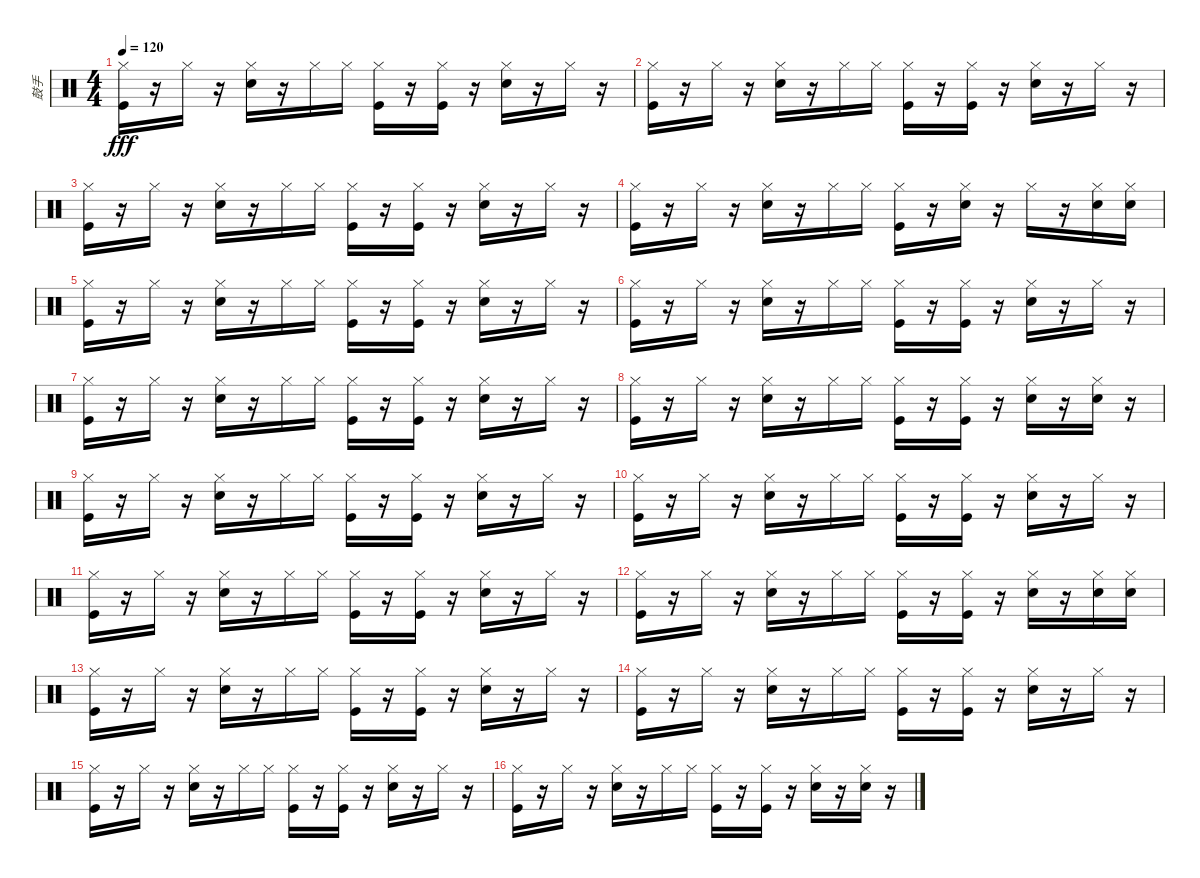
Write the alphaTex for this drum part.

\track ("鼓手" "鼓手") {instrument percussion}
\staff {score}
\articulation defaults
\ts (4 4)
\tempo 120
\clef neutral
\ks c
("Kick (hit)" "Hi-Hat (closed)").16{dy fff} r.16 "Hi-Hat (closed)".16 r.16 ("Snare (hit) 2" "Hi-Hat (closed)").16 r.16 "Hi-Hat (closed)".16 "Hi-Hat (closed)".16 ("Kick (hit)" "Hi-Hat (closed)").16 r.16 ("Kick (hit)" "Hi-Hat (closed)").16 r.16 ("Snare (hit) 2" "Hi-Hat (closed)").16 r.16 "Hi-Hat (closed)".16 r.16 |
("Kick (hit)" "Hi-Hat (closed)").16 r.16 "Hi-Hat (closed)".16 r.16 ("Snare (hit) 2" "Hi-Hat (closed)").16 r.16 "Hi-Hat (closed)".16 "Hi-Hat (closed)".16 ("Kick (hit)" "Hi-Hat (closed)").16 r.16 ("Kick (hit)" "Hi-Hat (closed)").16 r.16 ("Snare (hit) 2" "Hi-Hat (closed)").16 r.16 "Hi-Hat (closed)".16 r.16 |
("Kick (hit)" "Hi-Hat (closed)").16 r.16 "Hi-Hat (closed)".16 r.16 ("Snare (hit) 2" "Hi-Hat (closed)").16 r.16 "Hi-Hat (closed)".16 "Hi-Hat (closed)".16 ("Kick (hit)" "Hi-Hat (closed)").16 r.16 ("Kick (hit)" "Hi-Hat (closed)").16 r.16 ("Snare (hit) 2" "Hi-Hat (closed)").16 r.16 "Hi-Hat (closed)".16 r.16 |
("Kick (hit)" "Hi-Hat (closed)").16 r.16 "Hi-Hat (closed)".16 r.16 ("Snare (hit) 2" "Hi-Hat (closed)").16 r.16 "Hi-Hat (closed)".16 "Hi-Hat (closed)".16 ("Kick (hit)" "Hi-Hat (closed)").16 r.16 ("Snare (hit) 2" "Hi-Hat (closed)").16 r.16 "Hi-Hat (closed)".16 r.16 ("Snare (hit) 2" "Hi-Hat (closed)").16 ("Snare (hit) 2" "Hi-Hat (closed)").16 |
("Kick (hit)" "Hi-Hat (closed)").16 r.16 "Hi-Hat (closed)".16 r.16 ("Snare (hit) 2" "Hi-Hat (closed)").16 r.16 "Hi-Hat (closed)".16 "Hi-Hat (closed)".16 ("Kick (hit)" "Hi-Hat (closed)").16 r.16 ("Kick (hit)" "Hi-Hat (closed)").16 r.16 ("Snare (hit) 2" "Hi-Hat (closed)").16 r.16 "Hi-Hat (closed)".16 r.16 |
("Kick (hit)" "Hi-Hat (closed)").16 r.16 "Hi-Hat (closed)".16 r.16 ("Snare (hit) 2" "Hi-Hat (closed)").16 r.16 "Hi-Hat (closed)".16 "Hi-Hat (closed)".16 ("Kick (hit)" "Hi-Hat (closed)").16 r.16 ("Kick (hit)" "Hi-Hat (closed)").16 r.16 ("Snare (hit) 2" "Hi-Hat (closed)").16 r.16 "Hi-Hat (closed)".16 r.16 |
("Kick (hit)" "Hi-Hat (closed)").16 r.16 "Hi-Hat (closed)".16 r.16 ("Snare (hit) 2" "Hi-Hat (closed)").16 r.16 "Hi-Hat (closed)".16 "Hi-Hat (closed)".16 ("Kick (hit)" "Hi-Hat (closed)").16 r.16 ("Kick (hit)" "Hi-Hat (closed)").16 r.16 ("Snare (hit) 2" "Hi-Hat (closed)").16 r.16 "Hi-Hat (closed)".16 r.16 |
("Kick (hit)" "Hi-Hat (closed)").16 r.16 "Hi-Hat (closed)".16 r.16 ("Snare (hit) 2" "Hi-Hat (closed)").16 r.16 "Hi-Hat (closed)".16 "Hi-Hat (closed)".16 ("Kick (hit)" "Hi-Hat (closed)").16 r.16 ("Kick (hit)" "Hi-Hat (closed)").16 r.16 ("Snare (hit) 2" "Hi-Hat (closed)").16 r.16 ("Snare (hit) 2" "Hi-Hat (closed)").16 r.16 |
("Kick (hit)" "Hi-Hat (closed)").16 r.16 "Hi-Hat (closed)".16 r.16 ("Snare (hit) 2" "Hi-Hat (closed)").16 r.16 "Hi-Hat (closed)".16 "Hi-Hat (closed)".16 ("Kick (hit)" "Hi-Hat (closed)").16 r.16 ("Kick (hit)" "Hi-Hat (closed)").16 r.16 ("Snare (hit) 2" "Hi-Hat (closed)").16 r.16 "Hi-Hat (closed)".16 r.16 |
("Kick (hit)" "Hi-Hat (closed)").16 r.16 "Hi-Hat (closed)".16 r.16 ("Snare (hit) 2" "Hi-Hat (closed)").16 r.16 "Hi-Hat (closed)".16 "Hi-Hat (closed)".16 ("Kick (hit)" "Hi-Hat (closed)").16 r.16 ("Kick (hit)" "Hi-Hat (closed)").16 r.16 ("Snare (hit) 2" "Hi-Hat (closed)").16 r.16 "Hi-Hat (closed)".16 r.16 |
("Kick (hit)" "Hi-Hat (closed)").16 r.16 "Hi-Hat (closed)".16 r.16 ("Snare (hit) 2" "Hi-Hat (closed)").16 r.16 "Hi-Hat (closed)".16 "Hi-Hat (closed)".16 ("Kick (hit)" "Hi-Hat (closed)").16 r.16 ("Kick (hit)" "Hi-Hat (closed)").16 r.16 ("Snare (hit) 2" "Hi-Hat (closed)").16 r.16 "Hi-Hat (closed)".16 r.16 |
("Kick (hit)" "Hi-Hat (closed)").16 r.16 "Hi-Hat (closed)".16 r.16 ("Snare (hit) 2" "Hi-Hat (closed)").16 r.16 "Hi-Hat (closed)".16 "Hi-Hat (closed)".16 ("Kick (hit)" "Hi-Hat (closed)").16 r.16 ("Kick (hit)" "Hi-Hat (closed)").16 r.16 ("Snare (hit) 2" "Hi-Hat (closed)").16 r.16 ("Snare (hit) 2" "Hi-Hat (closed)").16 ("Snare (hit) 2" "Hi-Hat (closed)").16 |
("Kick (hit)" "Hi-Hat (closed)").16 r.16 "Hi-Hat (closed)".16 r.16 ("Snare (hit) 2" "Hi-Hat (closed)").16 r.16 "Hi-Hat (closed)".16 "Hi-Hat (closed)".16 ("Kick (hit)" "Hi-Hat (closed)").16 r.16 ("Kick (hit)" "Hi-Hat (closed)").16 r.16 ("Snare (hit) 2" "Hi-Hat (closed)").16 r.16 "Hi-Hat (closed)".16 r.16 |
("Kick (hit)" "Hi-Hat (closed)").16 r.16 "Hi-Hat (closed)".16 r.16 ("Snare (hit) 2" "Hi-Hat (closed)").16 r.16 "Hi-Hat (closed)".16 "Hi-Hat (closed)".16 ("Kick (hit)" "Hi-Hat (closed)").16 r.16 ("Kick (hit)" "Hi-Hat (closed)").16 r.16 ("Snare (hit) 2" "Hi-Hat (closed)").16 r.16 "Hi-Hat (closed)".16 r.16 |
("Kick (hit)" "Hi-Hat (closed)").16 r.16 "Hi-Hat (closed)".16 r.16 ("Snare (hit) 2" "Hi-Hat (closed)").16 r.16 "Hi-Hat (closed)".16 "Hi-Hat (closed)".16 ("Kick (hit)" "Hi-Hat (closed)").16 r.16 ("Kick (hit)" "Hi-Hat (closed)").16 r.16 ("Snare (hit) 2" "Hi-Hat (closed)").16 r.16 "Hi-Hat (closed)".16 r.16 |
("Kick (hit)" "Hi-Hat (closed)").16 r.16 "Hi-Hat (closed)".16 r.16 ("Snare (hit) 2" "Hi-Hat (closed)").16 r.16 "Hi-Hat (closed)".16 "Hi-Hat (closed)".16 ("Kick (hit)" "Hi-Hat (closed)").16 r.16 ("Kick (hit)" "Hi-Hat (closed)").16 r.16 ("Snare (hit) 2" "Hi-Hat (closed)").16 r.16 ("Snare (hit) 2" "Hi-Hat (closed)").16 r.16
